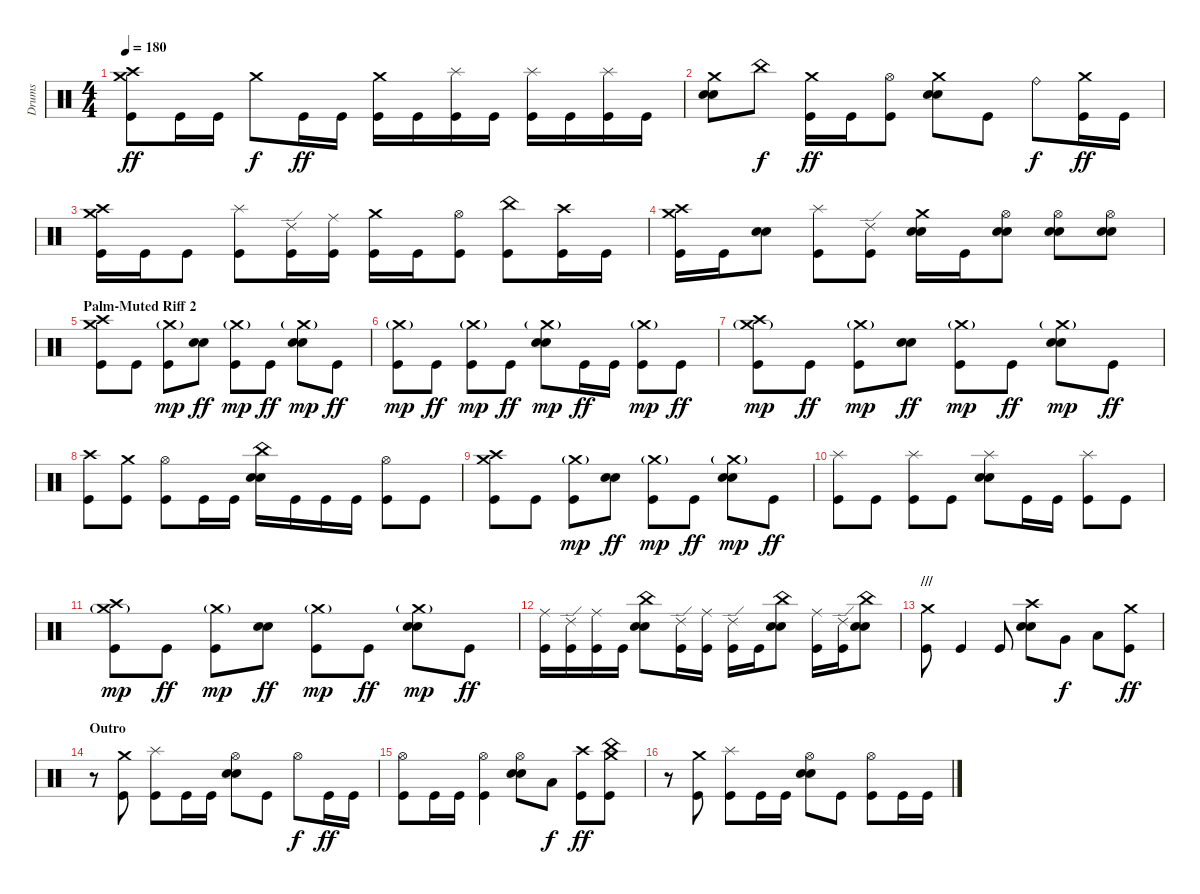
\track ("Drums" "Drums") {instrument percussion}
\staff {score}
\articulation defaults
\ts (4 4)
\tempo 180
\clef neutral
\ks c
("Kick (hit)" "Crash high (hit)" "Crash medium (hit)").8{dy ff} "Kick (hit)".16 "Kick (hit)".16 "Crash medium (hit)".8{dy f} "Kick (hit)".16{dy ff} "Kick (hit)".16 ("Kick (hit)" "Crash medium (hit)").16 "Kick (hit)".16 ("Kick (hit)" "Splash (hit)").16 "Kick (hit)".16 ("Kick (hit)" "Splash (hit)").16 "Kick (hit)".16 ("Kick (hit)" "Splash (hit)").16 "Kick (hit)".16 |
("Electric Snare (hit)" "Electric Snare (hit)" "Crash medium (hit)").8 "China (hit)".8{dy f} ("Kick (hit)" "Crash medium (hit)").16{dy ff} "Kick (hit)".16 ("Kick (hit)" "Hi-Hat (open)").8 ("Electric Snare (hit)" "Electric Snare (hit)" "Crash medium (hit)").8 "Kick (hit)".8 "Ride (bell)".8{dy f} ("Kick (hit)" "Crash medium (hit)").16{dy ff} "Kick (hit)".16 |
("Kick (hit)" "Crash high (hit)" "Crash medium (hit)").16 "Kick (hit)".16 "Kick (hit)".8 ("Kick (hit)" "Splash (hit)").8 ("Kick (hit)" "Ride (edge) 2").16 ("Kick (hit)" "Ride (middle)").16 ("Kick (hit)" "Crash medium (hit)").16 "Kick (hit)".16 ("Kick (hit)" "Hi-Hat (open)").8 ("Kick (hit)" "China (hit)").8 ("Kick (hit)" "Crash high (hit)").16 "Kick (hit)".16 |
("Kick (hit)" "Crash high (hit)" "Crash medium (hit)").16 "Kick (hit)".16 ("Electric Snare (hit)" "Electric Snare (hit)").8 ("Kick (hit)" "Splash (hit)").8 ("Kick (hit)" "Ride (edge) 2").8 ("Electric Snare (hit)" "Electric Snare (hit)" "Crash medium (hit)").16 "Kick (hit)".16 ("Electric Snare (hit)" "Electric Snare (hit)" "Hi-Hat (open)").8 ("Electric Snare (hit)" "Electric Snare (hit)" "Hi-Hat (open)").8 ("Electric Snare (hit)" "Electric Snare (hit)" "Hi-Hat (open)").8 |
\section ("" "Palm-Muted Riff 2")
("Kick (hit)" "Crash high (hit)" "Crash medium (hit)").8 "Kick (hit)".8 ("Kick (hit)" "Crash medium (hit)"{g}).8{dy mp} ("Electric Snare (hit)" "Electric Snare (hit)").8{dy ff} ("Kick (hit)" "Crash medium (hit)"{g}).8{dy mp} "Kick (hit)".8{dy ff} ("Electric Snare (hit)" "Electric Snare (hit)" "Crash medium (hit)"{g}).8{dy mp} "Kick (hit)".8{dy ff} |
("Kick (hit)" "Crash medium (hit)"{g}).8{dy mp} "Kick (hit)".8{dy ff} ("Kick (hit)" "Crash medium (hit)"{g}).8{dy mp} "Kick (hit)".8{dy ff} ("Electric Snare (hit)" "Electric Snare (hit)" "Crash medium (hit)"{g}).8{dy mp} "Kick (hit)".16{dy ff} "Kick (hit)".16 ("Kick (hit)" "Crash medium (hit)"{g}).8{dy mp} "Kick (hit)".8{dy ff} |
("Kick (hit)" "Crash high (hit)" "Crash medium (hit)"{g}).8{dy mp} "Kick (hit)".8{dy ff} ("Kick (hit)" "Crash medium (hit)"{g}).8{dy mp} ("Electric Snare (hit)" "Electric Snare (hit)").8{dy ff} ("Kick (hit)" "Crash medium (hit)"{g}).8{dy mp} "Kick (hit)".8{dy ff} ("Electric Snare (hit)" "Electric Snare (hit)" "Crash medium (hit)"{g}).8{dy mp} "Kick (hit)".8{dy ff} |
("Kick (hit)" "Crash high (hit)").8 ("Kick (hit)" "Crash medium (hit)").8 ("Kick (hit)" "Hi-Hat (open)").8 "Kick (hit)".16 "Kick (hit)".16 ("Electric Snare (hit)" "Electric Snare (hit)" "China (hit)").16 "Kick (hit)".16 "Kick (hit)".16 "Kick (hit)".16 ("Kick (hit)" "Hi-Hat (open)").8 "Kick (hit)".8 |
("Kick (hit)" "Crash high (hit)" "Crash medium (hit)").8 "Kick (hit)".8 ("Kick (hit)" "Crash medium (hit)"{g}).8{dy mp} ("Electric Snare (hit)" "Electric Snare (hit)").8{dy ff} ("Kick (hit)" "Crash medium (hit)"{g}).8{dy mp} "Kick (hit)".8{dy ff} ("Electric Snare (hit)" "Electric Snare (hit)" "Crash medium (hit)"{g}).8{dy mp} "Kick (hit)".8{dy ff} |
("Kick (hit)" "Splash (hit)").8 "Kick (hit)".8 ("Kick (hit)" "Splash (hit)").8 "Kick (hit)".8 ("Electric Snare (hit)" "Electric Snare (hit)" "Splash (hit)").8 "Kick (hit)".16 "Kick (hit)".16 ("Kick (hit)" "Splash (hit)").8 "Kick (hit)".8 |
("Kick (hit)" "Crash high (hit)" "Crash medium (hit)"{g}).8{dy mp} "Kick (hit)".8{dy ff} ("Kick (hit)" "Crash medium (hit)"{g}).8{dy mp} ("Electric Snare (hit)" "Electric Snare (hit)").8{dy ff} ("Kick (hit)" "Crash medium (hit)"{g}).8{dy mp} "Kick (hit)".8{dy ff} ("Electric Snare (hit)" "Electric Snare (hit)" "Crash medium (hit)"{g}).8{dy mp} "Kick (hit)".8{dy ff} |
("Kick (hit)" "Ride (middle)").16 ("Kick (hit)" "Ride (edge) 2").16 ("Kick (hit)" "Ride (middle)").16 "Kick (hit)".16 ("Electric Snare (hit)" "Electric Snare (hit)" "China (hit)").8 ("Kick (hit)" "Ride (edge) 2").16 ("Kick (hit)" "Ride (middle)").16 ("Kick (hit)" "Ride (edge) 2").16 "Kick (hit)".16 ("Electric Snare (hit)" "Electric Snare (hit)" "China (hit)").8 ("Kick (hit)" "Ride (middle)").16 ("Kick (hit)" "Ride (edge) 2").16 ("Electric Snare (hit)" "Electric Snare (hit)" "China (hit)").8 |
\section ("" "///")
("Kick (hit)" "Crash medium (hit)").8 "Kick (hit)".4 "Kick (hit)".8 ("Electric Snare (hit)" "Electric Snare (hit)" "Crash high (hit)").8 "Very Low Tom (hit)".8{dy f} "Low Floor Tom (hit)".8 ("Kick (hit)" "Crash medium (hit)").8{dy ff} |
\section ("" "Outro")
r.8{volume 2} ("Kick (hit)" "Crash medium (hit)").8{volume 14} ("Kick (hit)" "Splash (hit)").8 "Kick (hit)".16 "Kick (hit)".16 ("Electric Snare (hit)" "Electric Snare (hit)" "Hi-Hat (open)").8 "Kick (hit)".8 "Hi-Hat (open)".8{dy f} "Kick (hit)".16{dy ff} "Kick (hit)".16 |
("Kick (hit)" "Hi-Hat (open)").8 "Kick (hit)".16 "Kick (hit)".16 ("Kick (hit)" "Hi-Hat (open)").4 ("Electric Snare (hit)" "Electric Snare (hit)" "Hi-Hat (open)").8 "Low Tom (hit)".8{dy f} ("Kick (hit)" "Crash high (hit)").8{dy ff} ("Kick (hit)" "China (hit)" "Crash medium (hit)").8 |
r.8{volume 2} ("Kick (hit)" "Crash medium (hit)").8{volume 14} ("Kick (hit)" "Splash (hit)").8 "Kick (hit)".16 "Kick (hit)".16 ("Electric Snare (hit)" "Electric Snare (hit)" "Hi-Hat (open)").8 "Kick (hit)".8 ("Kick (hit)" "Hi-Hat (open)").8 "Kick (hit)".16 "Kick (hit)".16
